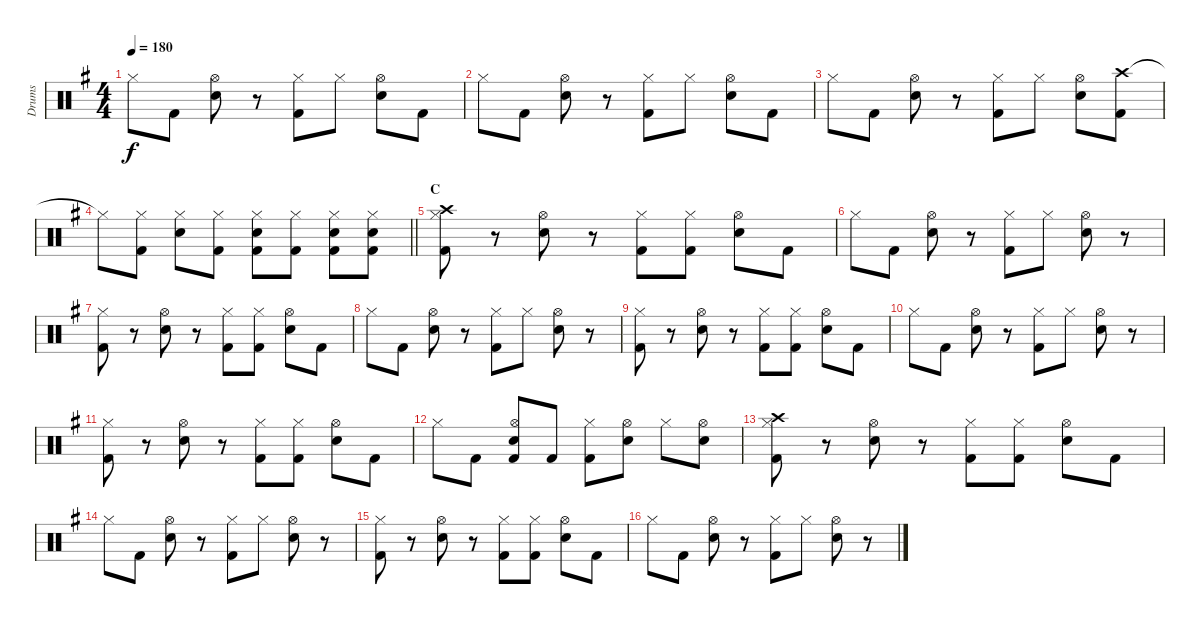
\track ("Drums" "Drums") {instrument percussion}
\staff {score}
\articulation defaults
\ts (4 4)
\tempo 180
\clef neutral
\ks g "Hi-Hat (closed)".8{dy f} "Kick (hit) 2".8
("Hi-Hat (open)" "Snare (hit) 2").8 r.8 ("Hi-Hat (closed)" "Kick (hit) 2").8 "Hi-Hat (closed)".8 ("Hi-Hat (open)" "Snare (hit) 2").8 "Kick (hit) 2".8 |
"Hi-Hat (closed)".8 "Kick (hit) 2".8 ("Hi-Hat (open)" "Snare (hit) 2").8 r.8 ("Hi-Hat (closed)" "Kick (hit) 2").8 "Hi-Hat (closed)".8 ("Hi-Hat (open)" "Snare (hit) 2").8 "Kick (hit) 2".8 |
"Hi-Hat (closed)".8 "Kick (hit) 2".8 ("Hi-Hat (open)" "Snare (hit) 2").8 r.8 ("Hi-Hat (closed)" "Kick (hit) 2").8 "Hi-Hat (closed)".8 ("Hi-Hat (open)" "Snare (hit) 2").8 ("Crash high (hit)" "Kick (hit) 2").8 |
\barLineRight lightlight "Hi-Hat (closed)"{t}.8
("Hi-Hat (closed)" "Kick (hit) 2").8 ("Hi-Hat (closed)" "Snare (hit) 2").8 ("Hi-Hat (closed)" "Kick (hit) 2").8 ("Hi-Hat (closed)" "Snare (hit) 2" "Kick (hit) 2").8 ("Hi-Hat (closed)" "Kick (hit) 2").8 ("Hi-Hat (closed)" "Snare (hit) 2" "Kick (hit) 2").8 ("Hi-Hat (closed)" "Snare (hit) 2" "Kick (hit) 2").8 |
\section ("" "C")
("Hi-Hat (closed)" "Crash high (hit)" "Kick (hit) 2").8 r.8 ("Hi-Hat (open)" "Snare (hit) 2").8 r.8 ("Hi-Hat (closed)" "Kick (hit) 2").8 ("Hi-Hat (closed)" "Kick (hit) 2").8 ("Hi-Hat (open)" "Snare (hit) 2").8 "Kick (hit) 2".8 |
"Hi-Hat (closed)".8 "Kick (hit) 2".8 ("Hi-Hat (open)" "Snare (hit) 2").8 r.8 ("Hi-Hat (closed)" "Kick (hit) 2").8 "Hi-Hat (closed)".8 ("Hi-Hat (open)" "Snare (hit) 2").8 r.8 |
("Hi-Hat (closed)" "Kick (hit) 2").8 r.8 ("Hi-Hat (open)" "Snare (hit) 2").8 r.8 ("Hi-Hat (closed)" "Kick (hit) 2").8 ("Hi-Hat (closed)" "Kick (hit) 2").8 ("Hi-Hat (open)" "Snare (hit) 2").8 "Kick (hit) 2".8 |
"Hi-Hat (closed)".8 "Kick (hit) 2".8 ("Hi-Hat (open)" "Snare (hit) 2").8 r.8 ("Hi-Hat (closed)" "Kick (hit) 2").8 "Hi-Hat (closed)".8 ("Hi-Hat (open)" "Snare (hit) 2").8 r.8 |
("Hi-Hat (closed)" "Kick (hit) 2").8 r.8 ("Hi-Hat (open)" "Snare (hit) 2").8 r.8 ("Hi-Hat (closed)" "Kick (hit) 2").8 ("Hi-Hat (closed)" "Kick (hit) 2").8 ("Hi-Hat (open)" "Snare (hit) 2").8 "Kick (hit) 2".8 |
"Hi-Hat (closed)".8 "Kick (hit) 2".8 ("Hi-Hat (open)" "Snare (hit) 2").8 r.8 ("Hi-Hat (closed)" "Kick (hit) 2").8 "Hi-Hat (closed)".8 ("Hi-Hat (open)" "Snare (hit) 2").8 r.8 |
("Hi-Hat (closed)" "Kick (hit) 2").8 r.8 ("Hi-Hat (open)" "Snare (hit) 2").8 r.8 ("Hi-Hat (closed)" "Kick (hit) 2").8 ("Hi-Hat (closed)" "Kick (hit) 2").8 ("Hi-Hat (open)" "Snare (hit) 2").8 "Kick (hit) 2".8 |
"Hi-Hat (closed)".8 "Kick (hit) 2".8 ("Hi-Hat (open)" "Snare (hit) 2" "Kick (hit) 2").8 "Kick (hit) 2".8 ("Hi-Hat (closed)" "Kick (hit) 2").8 ("Hi-Hat (open)" "Snare (hit) 2").8 "Hi-Hat (closed)".8 ("Hi-Hat (open)" "Snare (hit) 2").8 |
("Hi-Hat (closed)" "Crash high (hit)" "Kick (hit) 2").8 r.8 ("Hi-Hat (open)" "Snare (hit) 2").8 r.8 ("Hi-Hat (closed)" "Kick (hit) 2").8 ("Hi-Hat (closed)" "Kick (hit) 2").8 ("Hi-Hat (open)" "Snare (hit) 2").8 "Kick (hit) 2".8 |
"Hi-Hat (closed)".8 "Kick (hit) 2".8 ("Hi-Hat (open)" "Snare (hit) 2").8 r.8 ("Hi-Hat (closed)" "Kick (hit) 2").8 "Hi-Hat (closed)".8 ("Hi-Hat (open)" "Snare (hit) 2").8 r.8 |
("Hi-Hat (closed)" "Kick (hit) 2").8 r.8 ("Hi-Hat (open)" "Snare (hit) 2").8 r.8 ("Hi-Hat (closed)" "Kick (hit) 2").8 ("Hi-Hat (closed)" "Kick (hit) 2").8 ("Hi-Hat (open)" "Snare (hit) 2").8 "Kick (hit) 2".8 |
"Hi-Hat (closed)".8 "Kick (hit) 2".8 ("Hi-Hat (open)" "Snare (hit) 2").8 r.8 ("Hi-Hat (closed)" "Kick (hit) 2").8 "Hi-Hat (closed)".8 ("Hi-Hat (open)" "Snare (hit) 2").8 r.8
